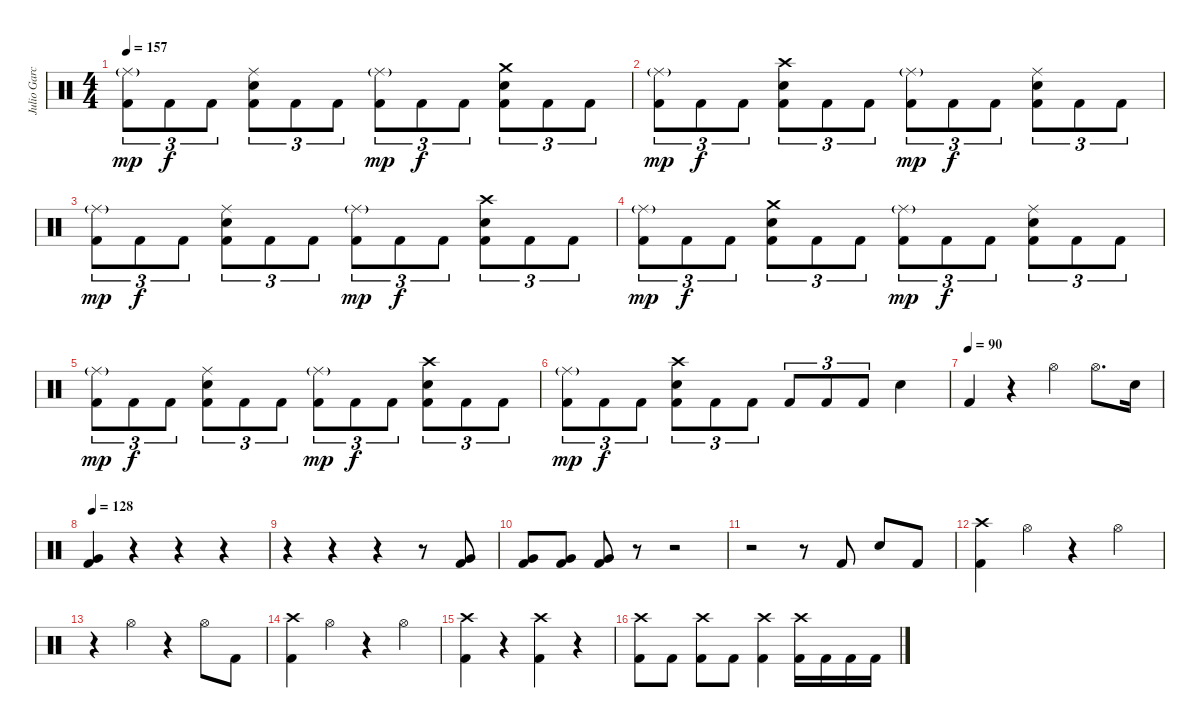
\track ("Julio Garcia" "Julio Garc") {instrument percussion}
\staff {score}
\articulation defaults
\ts (4 4)
\tempo 157
\clef neutral
\ks c
("Ride (middle)"{g} "Kick (hit) 2").8{tu (3 2) dy mp} "Kick (hit) 2".8{tu (3 2) dy f} "Kick (hit) 2".8{tu (3 2)} ("Ride (middle)" "Electric Snare (hit)" "Kick (hit) 2").8{tu (3 2)} "Kick (hit) 2".8{tu (3 2)} "Kick (hit) 2".8{tu (3 2)} ("Ride (middle)"{g} "Kick (hit) 2").8{tu (3 2) dy mp} "Kick (hit) 2".8{tu (3 2) dy f} "Kick (hit) 2".8{tu (3 2)} ("Crash medium (hit)" "Electric Snare (hit)" "Kick (hit) 2").8{tu (3 2)} "Kick (hit) 2".8{tu (3 2)} "Kick (hit) 2".8{tu (3 2)} |
("Ride (middle)"{g} "Kick (hit) 2").8{tu (3 2) dy mp} "Kick (hit) 2".8{tu (3 2) dy f} "Kick (hit) 2".8{tu (3 2)} ("Crash high (hit)" "Electric Snare (hit)" "Kick (hit) 2").8{tu (3 2)} "Kick (hit) 2".8{tu (3 2)} "Kick (hit) 2".8{tu (3 2)} ("Ride (middle)"{g} "Kick (hit) 2").8{tu (3 2) dy mp} "Kick (hit) 2".8{tu (3 2) dy f} "Kick (hit) 2".8{tu (3 2)} ("Ride (middle)" "Electric Snare (hit)" "Kick (hit) 2").8{tu (3 2)} "Kick (hit) 2".8{tu (3 2)} "Kick (hit) 2".8{tu (3 2)} |
("Ride (middle)"{g} "Kick (hit) 2").8{tu (3 2) dy mp} "Kick (hit) 2".8{tu (3 2) dy f} "Kick (hit) 2".8{tu (3 2)} ("Ride (middle)" "Electric Snare (hit)" "Kick (hit) 2").8{tu (3 2)} "Kick (hit) 2".8{tu (3 2)} "Kick (hit) 2".8{tu (3 2)} ("Ride (middle)"{g} "Kick (hit) 2").8{tu (3 2) dy mp} "Kick (hit) 2".8{tu (3 2) dy f} "Kick (hit) 2".8{tu (3 2)} ("Crash high (hit)" "Electric Snare (hit)" "Kick (hit) 2").8{tu (3 2)} "Kick (hit) 2".8{tu (3 2)} "Kick (hit) 2".8{tu (3 2)} |
("Ride (middle)"{g} "Kick (hit) 2").8{tu (3 2) dy mp} "Kick (hit) 2".8{tu (3 2) dy f} "Kick (hit) 2".8{tu (3 2)} ("Crash medium (hit)" "Electric Snare (hit)" "Kick (hit) 2").8{tu (3 2)} "Kick (hit) 2".8{tu (3 2)} "Kick (hit) 2".8{tu (3 2)} ("Ride (middle)"{g} "Kick (hit) 2").8{tu (3 2) dy mp} "Kick (hit) 2".8{tu (3 2) dy f} "Kick (hit) 2".8{tu (3 2)} ("Ride (middle)" "Electric Snare (hit)" "Kick (hit) 2").8{tu (3 2)} "Kick (hit) 2".8{tu (3 2)} "Kick (hit) 2".8{tu (3 2)} |
("Ride (middle)"{g} "Kick (hit) 2").8{tu (3 2) dy mp} "Kick (hit) 2".8{tu (3 2) dy f} "Kick (hit) 2".8{tu (3 2)} ("Ride (middle)" "Electric Snare (hit)" "Kick (hit) 2").8{tu (3 2)} "Kick (hit) 2".8{tu (3 2)} "Kick (hit) 2".8{tu (3 2)} ("Ride (middle)"{g} "Kick (hit) 2").8{tu (3 2) dy mp} "Kick (hit) 2".8{tu (3 2) dy f} "Kick (hit) 2".8{tu (3 2)} ("Crash high (hit)" "Electric Snare (hit)" "Kick (hit) 2").8{tu (3 2)} "Kick (hit) 2".8{tu (3 2)} "Kick (hit) 2".8{tu (3 2)} |
("Ride (middle)"{g} "Kick (hit) 2").8{tu (3 2) dy mp} "Kick (hit) 2".8{tu (3 2) dy f} "Kick (hit) 2".8{tu (3 2)} ("Crash high (hit)" "Electric Snare (hit)" "Kick (hit) 2").8{tu (3 2)} "Kick (hit) 2".8{tu (3 2)} "Kick (hit) 2".8{tu (3 2)} "Kick (hit) 2".8{tu (3 2)} "Kick (hit) 2".8{tu (3 2)} "Kick (hit) 2".8{tu (3 2)} "Electric Snare (hit)".4 |
\tempo (90)
"Kick (hit) 2".4 r.4 "Hi-Hat (open)".4 "Hi-Hat (open)".8{d} "Electric Snare (hit)".16 |
\tempo 128
("Very Low Tom (hit)" "Kick (hit) 2").4 r.4 r.4 r.4 |
r.4 r.4 r.4 r.8 ("Very Low Tom (hit)" "Kick (hit) 2").8 |
("Very Low Tom (hit)" "Kick (hit) 2").8 ("Very Low Tom (hit)" "Kick (hit) 2").8 ("Very Low Tom (hit)" "Kick (hit) 2").8 r.8 r.2 |
r.2 r.8 "Kick (hit) 2".8 "Electric Snare (hit)".8 "Kick (hit) 2".8 |
("Crash high (hit)" "Kick (hit) 2").4 "Hi-Hat (open)".4 r.4 "Hi-Hat (open)".4 |
r.4 "Hi-Hat (open)".4 r.4 "Hi-Hat (open)".8 "Kick (hit) 2".8 |
("Crash high (hit)" "Kick (hit) 2").4 "Hi-Hat (open)".4 r.4 "Hi-Hat (open)".4 |
("Crash high (hit)" "Kick (hit) 2").4 r.4 ("Crash high (hit)" "Kick (hit) 2").4 r.4 |
("Crash high (hit)" "Kick (hit) 2").8 "Kick (hit) 2".8 ("Crash high (hit)" "Kick (hit) 2").8 "Kick (hit) 2".8 ("Crash high (hit)" "Kick (hit) 2").4 ("Crash high (hit)" "Kick (hit) 2").16 "Kick (hit) 2".16 "Kick (hit) 2".16 "Kick (hit) 2".16
